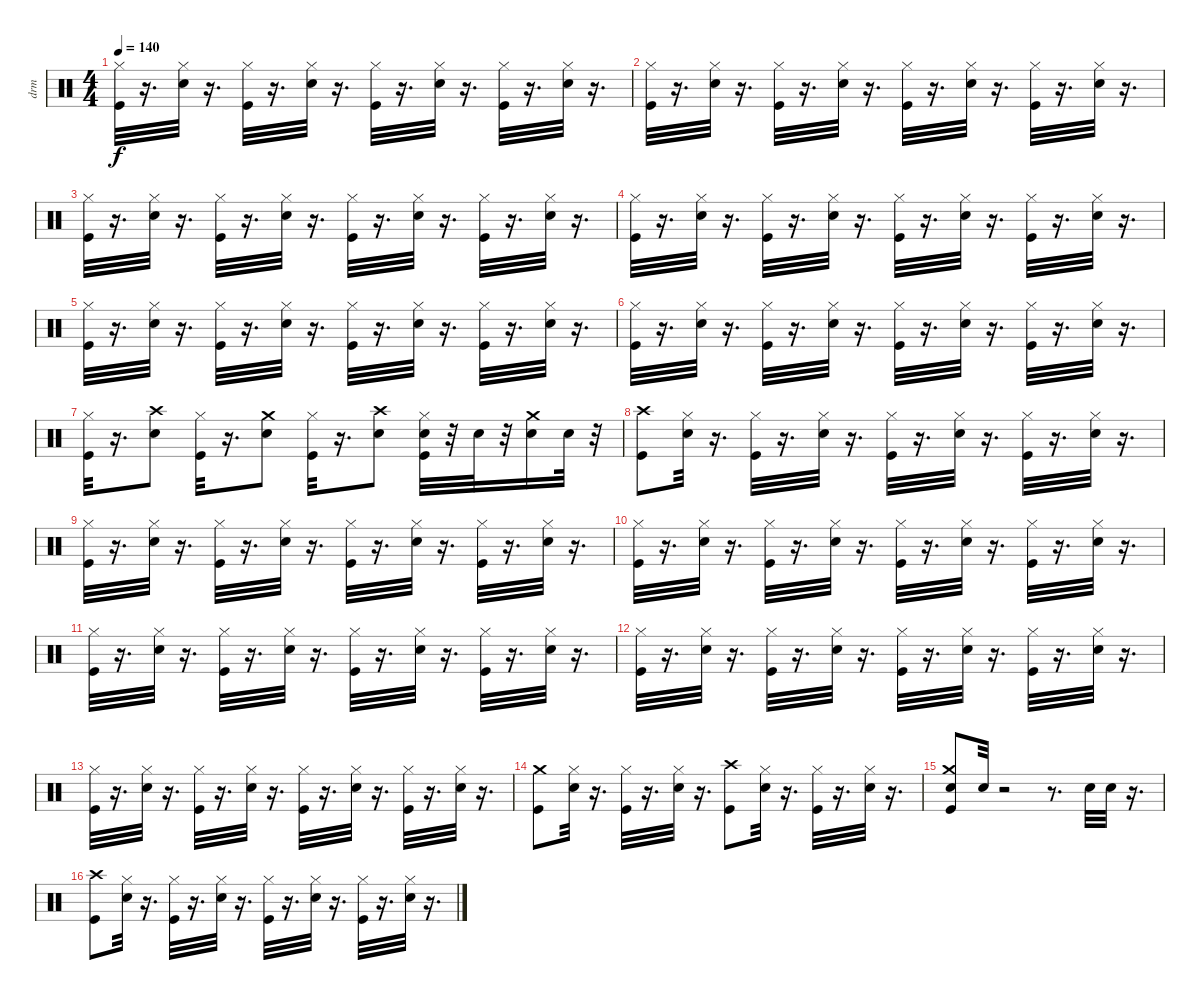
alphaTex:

\track ("drm" "drm") {instrument percussion}
\staff {score}
\articulation defaults
\ts (4 4)
\tempo 140
\clef neutral
\ks c
("Kick (hit)" "Hi-Hat (closed)").32{dy f} r.16{d} ("Snare (hit) 2" "Hi-Hat (closed)").32 r.16{d} ("Kick (hit)" "Hi-Hat (closed)").32 r.16{d} ("Snare (hit) 2" "Hi-Hat (closed)").32 r.16{d} ("Kick (hit)" "Hi-Hat (closed)").32 r.16{d} ("Snare (hit) 2" "Hi-Hat (closed)").32 r.16{d} ("Kick (hit)" "Hi-Hat (closed)").32 r.16{d} ("Snare (hit) 2" "Hi-Hat (closed)").32 r.16{d} |
("Kick (hit)" "Hi-Hat (closed)").32 r.16{d} ("Snare (hit) 2" "Hi-Hat (closed)").32 r.16{d} ("Kick (hit)" "Hi-Hat (closed)").32 r.16{d} ("Snare (hit) 2" "Hi-Hat (closed)").32 r.16{d} ("Kick (hit)" "Hi-Hat (closed)").32 r.16{d} ("Snare (hit) 2" "Hi-Hat (closed)").32 r.16{d} ("Kick (hit)" "Hi-Hat (closed)").32 r.16{d} ("Snare (hit) 2" "Hi-Hat (closed)").32 r.16{d} |
("Kick (hit)" "Hi-Hat (closed)").32 r.16{d} ("Snare (hit) 2" "Hi-Hat (closed)").32 r.16{d} ("Kick (hit)" "Hi-Hat (closed)").32 r.16{d} ("Snare (hit) 2" "Hi-Hat (closed)").32 r.16{d} ("Kick (hit)" "Hi-Hat (closed)").32 r.16{d} ("Snare (hit) 2" "Hi-Hat (closed)").32 r.16{d} ("Kick (hit)" "Hi-Hat (closed)").32 r.16{d} ("Snare (hit) 2" "Hi-Hat (closed)").32 r.16{d} |
("Kick (hit)" "Hi-Hat (closed)").32 r.16{d} ("Snare (hit) 2" "Hi-Hat (closed)").32 r.16{d} ("Kick (hit)" "Hi-Hat (closed)").32 r.16{d} ("Snare (hit) 2" "Hi-Hat (closed)").32 r.16{d} ("Kick (hit)" "Hi-Hat (closed)").32 r.16{d} ("Snare (hit) 2" "Hi-Hat (closed)").32 r.16{d} ("Kick (hit)" "Hi-Hat (closed)").32 r.16{d} ("Snare (hit) 2" "Hi-Hat (closed)").32 r.16{d} |
("Kick (hit)" "Hi-Hat (closed)").32 r.16{d} ("Snare (hit) 2" "Hi-Hat (closed)").32 r.16{d} ("Kick (hit)" "Hi-Hat (closed)").32 r.16{d} ("Snare (hit) 2" "Hi-Hat (closed)").32 r.16{d} ("Kick (hit)" "Hi-Hat (closed)").32 r.16{d} ("Snare (hit) 2" "Hi-Hat (closed)").32 r.16{d} ("Kick (hit)" "Hi-Hat (closed)").32 r.16{d} ("Snare (hit) 2" "Hi-Hat (closed)").32 r.16{d} |
("Kick (hit)" "Hi-Hat (closed)").32 r.16{d} ("Snare (hit) 2" "Hi-Hat (closed)").32 r.16{d} ("Kick (hit)" "Hi-Hat (closed)").32 r.16{d} ("Snare (hit) 2" "Hi-Hat (closed)").32 r.16{d} ("Kick (hit)" "Hi-Hat (closed)").32 r.16{d} ("Snare (hit) 2" "Hi-Hat (closed)").32 r.16{d} ("Kick (hit)" "Hi-Hat (closed)").32 r.16{d} ("Snare (hit) 2" "Hi-Hat (closed)").32 r.16{d} |
("Kick (hit)" "Hi-Hat (closed)").32 r.16{d} ("Crash high (hit)" "Snare (hit) 2").8 ("Kick (hit)" "Hi-Hat (closed)").32 r.16{d} ("Crash medium (hit)" "Snare (hit) 2").8 ("Kick (hit)" "Hi-Hat (closed)").32 r.16{d} ("Crash high (hit)" "Snare (hit) 2").8 ("Snare (hit) 2" "Kick (hit)" "Hi-Hat (closed)").32 r.32 "Snare (hit) 2".32 r.32 ("Crash medium (hit)" "Snare (hit) 2").16 "Snare (hit) 2".32 r.32 |
("Crash high (hit)" "Kick (hit)").8 ("Snare (hit) 2" "Hi-Hat (closed)").32 r.16{d} ("Kick (hit)" "Hi-Hat (closed)").32 r.16{d} ("Snare (hit) 2" "Hi-Hat (closed)").32 r.16{d} ("Kick (hit)" "Hi-Hat (closed)").32 r.16{d} ("Snare (hit) 2" "Hi-Hat (closed)").32 r.16{d} ("Kick (hit)" "Hi-Hat (closed)").32 r.16{d} ("Snare (hit) 2" "Hi-Hat (closed)").32 r.16{d} |
("Kick (hit)" "Hi-Hat (closed)").32 r.16{d} ("Snare (hit) 2" "Hi-Hat (closed)").32 r.16{d} ("Kick (hit)" "Hi-Hat (closed)").32 r.16{d} ("Snare (hit) 2" "Hi-Hat (closed)").32 r.16{d} ("Kick (hit)" "Hi-Hat (closed)").32 r.16{d} ("Snare (hit) 2" "Hi-Hat (closed)").32 r.16{d} ("Kick (hit)" "Hi-Hat (closed)").32 r.16{d} ("Snare (hit) 2" "Hi-Hat (closed)").32 r.16{d} |
("Kick (hit)" "Hi-Hat (closed)").32 r.16{d} ("Snare (hit) 2" "Hi-Hat (closed)").32 r.16{d} ("Kick (hit)" "Hi-Hat (closed)").32 r.16{d} ("Snare (hit) 2" "Hi-Hat (closed)").32 r.16{d} ("Kick (hit)" "Hi-Hat (closed)").32 r.16{d} ("Snare (hit) 2" "Hi-Hat (closed)").32 r.16{d} ("Kick (hit)" "Hi-Hat (closed)").32 r.16{d} ("Snare (hit) 2" "Hi-Hat (closed)").32 r.16{d} |
("Kick (hit)" "Hi-Hat (closed)").32 r.16{d} ("Snare (hit) 2" "Hi-Hat (closed)").32 r.16{d} ("Kick (hit)" "Hi-Hat (closed)").32 r.16{d} ("Snare (hit) 2" "Hi-Hat (closed)").32 r.16{d} ("Kick (hit)" "Hi-Hat (closed)").32 r.16{d} ("Snare (hit) 2" "Hi-Hat (closed)").32 r.16{d} ("Kick (hit)" "Hi-Hat (closed)").32 r.16{d} ("Snare (hit) 2" "Hi-Hat (closed)").32 r.16{d} |
("Kick (hit)" "Hi-Hat (closed)").32 r.16{d} ("Snare (hit) 2" "Hi-Hat (closed)").32 r.16{d} ("Kick (hit)" "Hi-Hat (closed)").32 r.16{d} ("Snare (hit) 2" "Hi-Hat (closed)").32 r.16{d} ("Kick (hit)" "Hi-Hat (closed)").32 r.16{d} ("Snare (hit) 2" "Hi-Hat (closed)").32 r.16{d} ("Kick (hit)" "Hi-Hat (closed)").32 r.16{d} ("Snare (hit) 2" "Hi-Hat (closed)").32 r.16{d} |
("Kick (hit)" "Hi-Hat (closed)").32 r.16{d} ("Snare (hit) 2" "Hi-Hat (closed)").32 r.16{d} ("Kick (hit)" "Hi-Hat (closed)").32 r.16{d} ("Snare (hit) 2" "Hi-Hat (closed)").32 r.16{d} ("Kick (hit)" "Hi-Hat (closed)").32 r.16{d} ("Snare (hit) 2" "Hi-Hat (closed)").32 r.16{d} ("Kick (hit)" "Hi-Hat (closed)").32 r.16{d} ("Snare (hit) 2" "Hi-Hat (closed)").32 r.16{d} |
("Crash medium (hit)" "Kick (hit)").8 ("Snare (hit) 2" "Hi-Hat (closed)").32 r.16{d} ("Kick (hit)" "Hi-Hat (closed)").32 r.16{d} ("Snare (hit) 2" "Hi-Hat (closed)").32 r.16{d} ("Crash high (hit)" "Kick (hit)").8 ("Snare (hit) 2" "Hi-Hat (closed)").32 r.16{d} ("Kick (hit)" "Hi-Hat (closed)").32 r.16{d} ("Snare (hit) 2" "Hi-Hat (closed)").32 r.16{d} |
("Electric Snare (hit)" "Crash medium (hit)" "Kick (hit)").8 "Electric Snare (hit)".32 r.2 r.8{d} "Electric Snare (hit)".32 "Electric Snare (hit)".32 r.16{d} |
("Crash high (hit)" "Kick (hit)").8 ("Snare (hit) 2" "Hi-Hat (closed)").32 r.16{d} ("Kick (hit)" "Hi-Hat (closed)").32 r.16{d} ("Snare (hit) 2" "Hi-Hat (closed)").32 r.16{d} ("Kick (hit)" "Hi-Hat (closed)").32 r.16{d} ("Snare (hit) 2" "Hi-Hat (closed)").32 r.16{d} ("Kick (hit)" "Hi-Hat (closed)").32 r.16{d} ("Snare (hit) 2" "Hi-Hat (closed)").32 r.16{d}
